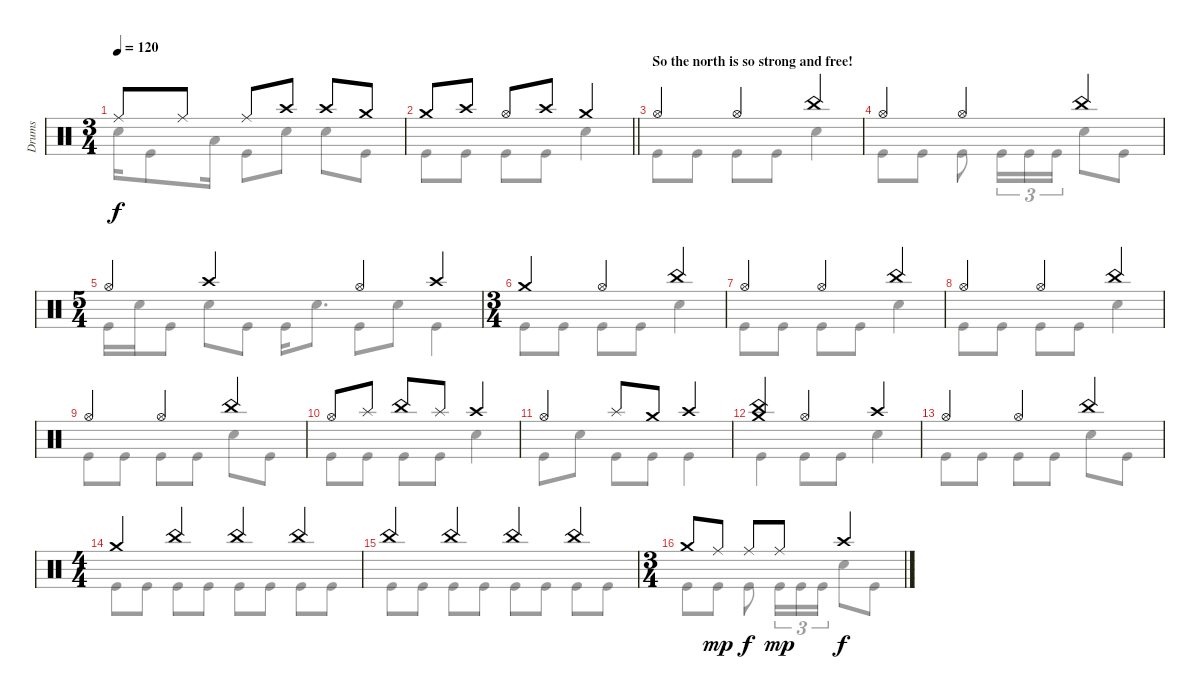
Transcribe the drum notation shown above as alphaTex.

\track ("Drums" "Drums") {instrument percussion}
\staff {score}
\articulation defaults
\voice
\ts (3 4)
\tempo 120
\clef neutral
\ks c "Ride (middle)".8{dy f} "Ride (middle)".8 "Ride (middle)".8 "Crash high (hit)".8 "Crash high (hit)".8 "Crash medium (hit)".8
|
\barLineRight lightlight "Crash medium (hit)".8 "Crash high (hit)".8 "Hi-Hat (open)".8 "Crash high (hit)".8 "Crash medium (hit)".4
|
\section ("" "So the north is so strong and free!")
"Hi-Hat (open)".4 "Hi-Hat (open)".4 "China (hit)".4 |
"Hi-Hat (open)".4 "Hi-Hat (open)".4 "China (hit)".4 |
\ts (5 4)
"Hi-Hat (open)".4 "Crash high (hit)".2 "Hi-Hat (open)".4 "Crash high (hit)".4 |
\ts (3 4)
"Crash medium (hit)".4 "Hi-Hat (open)".4 "China (hit)".4 |
"Hi-Hat (open)".4 "Hi-Hat (open)".4 "China (hit)".4 |
"Hi-Hat (open)".4 "Hi-Hat (open)".4 "China (hit)".4 |
"Hi-Hat (open)".4 "Hi-Hat (open)".4 "China (hit)".4 |
"Hi-Hat (open)".8 "Splash (hit)".8 "China (hit)".8 "Splash (hit)".8 "Crash high (hit)".4 |
"Hi-Hat (open)".4 "Splash (hit)".8 "Crash medium (hit)".8 "Crash high (hit)".4 |
("China (hit)" "Crash medium (hit)").4 "Hi-Hat (open)".4 "Crash high (hit)".4 |
"Hi-Hat (open)".4 "Hi-Hat (open)".4 "China (hit)".4 |
\ts (4 4)
"Crash medium (hit)".4 "China (hit)".4 "China (hit)".4 "China (hit)".4 |
"China (hit)".4 "China (hit)".4 "China (hit)".4 "China (hit)".4 |
\ts (3 4)
"Crash medium (hit)".8 "Ride (middle)".8{dy mp} "Ride (middle)".8{dy f} "Ride (middle)".8{dy mp} "Crash high (hit)".4{dy f}
\voice
\clef neutral
\ottava regular
\simile none
\ks c "Snare (hit) 2".16{dy f} "Kick (hit)".8 "Low Tom (hit)".16 "Kick (hit)".8 "Snare (hit) 2".8 "Snare (hit) 2".8 "Kick (hit)".8
|
\barLineRight lightlight "Kick (hit)".8 "Kick (hit)".8 "Kick (hit)".8 "Kick (hit)".8 "Snare (hit) 2".4
|
"Kick (hit)".8 "Kick (hit)".8 "Kick (hit)".8 "Kick (hit)".8 "Snare (hit) 2".4 |
"Kick (hit)".8 "Kick (hit)".8 "Kick (hit)".8 "Kick (hit)".16{tu (3 2)} "Kick (hit)".16{tu (3 2)} "Kick (hit)".16{tu (3 2)} "Snare (hit) 2".8 "Kick (hit)".8 |
"Kick (hit)".16 "Snare (hit) 2".16 "Kick (hit)".8 "Snare (hit) 2".8 "Kick (hit)".8 "Kick (hit)".16 "Snare (hit) 2".8{d} "Kick (hit)".8 "Snare (hit) 2".8 "Kick (hit)".4 |
"Kick (hit)".8 "Kick (hit)".8 "Kick (hit)".8 "Kick (hit)".8 "Snare (hit) 2".4 |
"Kick (hit)".8 "Kick (hit)".8 "Kick (hit)".8 "Kick (hit)".8 "Snare (hit) 2".4 |
"Kick (hit)".8 "Kick (hit)".8 "Kick (hit)".8 "Kick (hit)".8 "Snare (hit) 2".4 |
"Kick (hit)".8 "Kick (hit)".8 "Kick (hit)".8 "Kick (hit)".8 "Snare (hit) 2".8 "Kick (hit)".8 |
"Kick (hit)".8 "Kick (hit)".8 "Kick (hit)".8 "Kick (hit)".8 "Snare (hit) 2".4 |
"Kick (hit)".8 "Snare (hit) 2".8 "Kick (hit)".8 "Kick (hit)".8 "Kick (hit)".4 |
"Kick (hit)".4 "Kick (hit)".8 "Kick (hit)".8 "Snare (hit) 2".4 |
"Kick (hit)".8 "Kick (hit)".8 "Kick (hit)".8 "Kick (hit)".8 "Snare (hit) 2".8 "Kick (hit)".8 |
"Kick (hit)".8 "Kick (hit)".8 "Kick (hit)".8 "Kick (hit)".8 "Kick (hit)".8 "Kick (hit)".8 "Kick (hit)".8 "Kick (hit)".8 |
"Kick (hit)".8 "Kick (hit)".8 "Kick (hit)".8 "Kick (hit)".8 "Kick (hit)".8 "Kick (hit)".8 "Kick (hit)".8 "Kick (hit)".8 |
"Kick (hit)".8 "Kick (hit)".8 "Kick (hit)".8 "Kick (hit)".16{tu (3 2)} "Kick (hit)".16{tu (3 2)} "Kick (hit)".16{tu (3 2)} "Snare (hit) 2".8 "Kick (hit)".8
